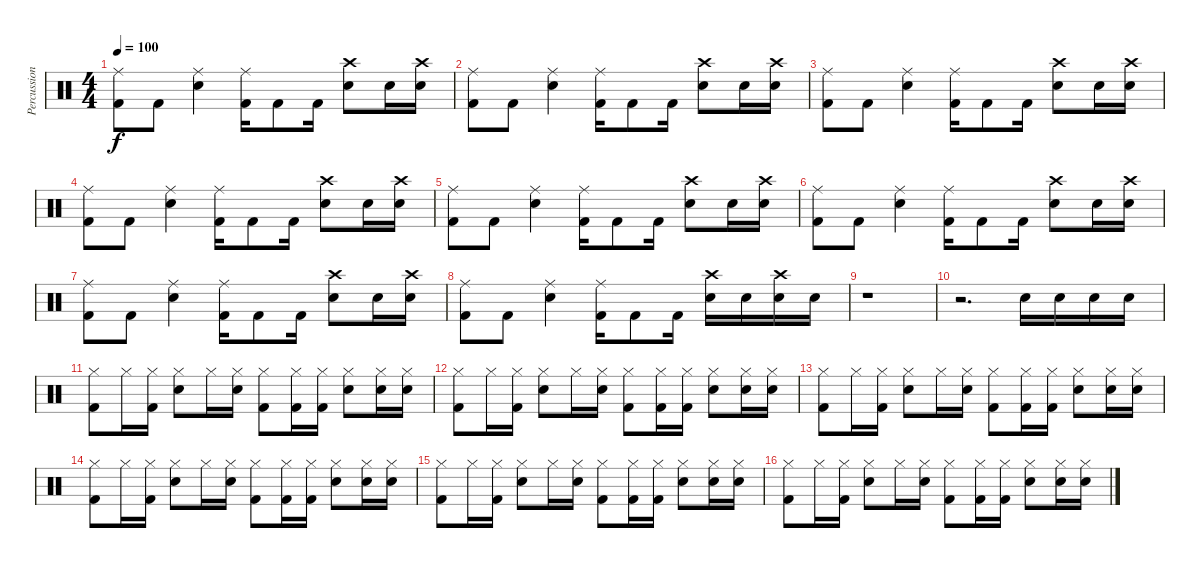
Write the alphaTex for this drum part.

\track ("Percussion - Drums" "Percussion") {instrument percussion}
\staff {score}
\articulation defaults
\ts (4 4)
\tempo 100
\clef neutral
\ks c
("Ride (middle)" "Kick (hit) 2").8{dy f} "Kick (hit) 2".8 ("Ride (middle)" "Snare (hit) 2").4 ("Ride (middle)" "Kick (hit) 2").16 "Kick (hit) 2".8 "Kick (hit) 2".16 ("Crash high (hit)" "Snare (hit) 2").8 "Snare (hit) 2".16 ("Crash high (hit)" "Snare (hit) 2").16 |
("Ride (middle)" "Kick (hit) 2").8 "Kick (hit) 2".8 ("Ride (middle)" "Snare (hit) 2").4 ("Ride (middle)" "Kick (hit) 2").16 "Kick (hit) 2".8 "Kick (hit) 2".16 ("Crash high (hit)" "Snare (hit) 2").8 "Snare (hit) 2".16 ("Crash high (hit)" "Snare (hit) 2").16 |
("Ride (middle)" "Kick (hit) 2").8 "Kick (hit) 2".8 ("Ride (middle)" "Snare (hit) 2").4 ("Ride (middle)" "Kick (hit) 2").16 "Kick (hit) 2".8 "Kick (hit) 2".16 ("Crash high (hit)" "Snare (hit) 2").8 "Snare (hit) 2".16 ("Crash high (hit)" "Snare (hit) 2").16 |
("Ride (middle)" "Kick (hit) 2").8 "Kick (hit) 2".8 ("Ride (middle)" "Snare (hit) 2").4 ("Ride (middle)" "Kick (hit) 2").16 "Kick (hit) 2".8 "Kick (hit) 2".16 ("Crash high (hit)" "Snare (hit) 2").8 "Snare (hit) 2".16 ("Crash high (hit)" "Snare (hit) 2").16 |
("Ride (middle)" "Kick (hit) 2").8 "Kick (hit) 2".8 ("Ride (middle)" "Snare (hit) 2").4 ("Ride (middle)" "Kick (hit) 2").16 "Kick (hit) 2".8 "Kick (hit) 2".16 ("Crash high (hit)" "Snare (hit) 2").8 "Snare (hit) 2".16 ("Crash high (hit)" "Snare (hit) 2").16 |
("Ride (middle)" "Kick (hit) 2").8 "Kick (hit) 2".8 ("Ride (middle)" "Snare (hit) 2").4 ("Ride (middle)" "Kick (hit) 2").16 "Kick (hit) 2".8 "Kick (hit) 2".16 ("Crash high (hit)" "Snare (hit) 2").8 "Snare (hit) 2".16 ("Crash high (hit)" "Snare (hit) 2").16 |
("Ride (middle)" "Kick (hit) 2").8 "Kick (hit) 2".8 ("Ride (middle)" "Snare (hit) 2").4 ("Ride (middle)" "Kick (hit) 2").16 "Kick (hit) 2".8 "Kick (hit) 2".16 ("Crash high (hit)" "Snare (hit) 2").8 "Snare (hit) 2".16 ("Crash high (hit)" "Snare (hit) 2").16 |
("Ride (middle)" "Kick (hit) 2").8 "Kick (hit) 2".8 ("Ride (middle)" "Snare (hit) 2").4 ("Ride (middle)" "Kick (hit) 2").16 "Kick (hit) 2".8 "Kick (hit) 2".16 ("Crash high (hit)" "Snare (hit) 2").16 "Snare (hit) 2".16 ("Crash high (hit)" "Snare (hit) 2").16 "Snare (hit) 2".16 |
r.1 |
r.2{d} "Snare (hit) 2".16 "Snare (hit) 2".16 "Snare (hit) 2".16 "Snare (hit) 2".16 |
("Hi-Hat (closed)" "Kick (hit) 2").8 "Hi-Hat (closed)".16 ("Hi-Hat (closed)" "Kick (hit) 2").16 ("Hi-Hat (closed)" "Snare (hit) 2").8 "Hi-Hat (closed)".16 ("Hi-Hat (closed)" "Snare (hit) 2").16 ("Hi-Hat (closed)" "Kick (hit) 2").8 ("Hi-Hat (closed)" "Kick (hit) 2").16 ("Hi-Hat (closed)" "Kick (hit) 2").16 ("Hi-Hat (closed)" "Snare (hit) 2").8 ("Hi-Hat (closed)" "Snare (hit) 2").16 ("Hi-Hat (closed)" "Snare (hit) 2").16 |
("Hi-Hat (closed)" "Kick (hit) 2").8 "Hi-Hat (closed)".16 ("Hi-Hat (closed)" "Kick (hit) 2").16 ("Hi-Hat (closed)" "Snare (hit) 2").8 "Hi-Hat (closed)".16 ("Hi-Hat (closed)" "Snare (hit) 2").16 ("Hi-Hat (closed)" "Kick (hit) 2").8 ("Hi-Hat (closed)" "Kick (hit) 2").16 ("Hi-Hat (closed)" "Kick (hit) 2").16 ("Hi-Hat (closed)" "Snare (hit) 2").8 ("Hi-Hat (closed)" "Snare (hit) 2").16 ("Hi-Hat (closed)" "Snare (hit) 2").16 |
("Hi-Hat (closed)" "Kick (hit) 2").8 "Hi-Hat (closed)".16 ("Hi-Hat (closed)" "Kick (hit) 2").16 ("Hi-Hat (closed)" "Snare (hit) 2").8 "Hi-Hat (closed)".16 ("Hi-Hat (closed)" "Snare (hit) 2").16 ("Hi-Hat (closed)" "Kick (hit) 2").8 ("Hi-Hat (closed)" "Kick (hit) 2").16 ("Hi-Hat (closed)" "Kick (hit) 2").16 ("Hi-Hat (closed)" "Snare (hit) 2").8 ("Hi-Hat (closed)" "Snare (hit) 2").16 ("Hi-Hat (closed)" "Snare (hit) 2").16 |
("Hi-Hat (closed)" "Kick (hit) 2").8 "Hi-Hat (closed)".16 ("Hi-Hat (closed)" "Kick (hit) 2").16 ("Hi-Hat (closed)" "Snare (hit) 2").8 "Hi-Hat (closed)".16 ("Hi-Hat (closed)" "Snare (hit) 2").16 ("Hi-Hat (closed)" "Kick (hit) 2").8 ("Hi-Hat (closed)" "Kick (hit) 2").16 ("Hi-Hat (closed)" "Kick (hit) 2").16 ("Hi-Hat (closed)" "Snare (hit) 2").8 ("Hi-Hat (closed)" "Snare (hit) 2").16 ("Hi-Hat (closed)" "Snare (hit) 2").16 |
("Hi-Hat (closed)" "Kick (hit) 2").8 "Hi-Hat (closed)".16 ("Hi-Hat (closed)" "Kick (hit) 2").16 ("Hi-Hat (closed)" "Snare (hit) 2").8 "Hi-Hat (closed)".16 ("Hi-Hat (closed)" "Snare (hit) 2").16 ("Hi-Hat (closed)" "Kick (hit) 2").8 ("Hi-Hat (closed)" "Kick (hit) 2").16 ("Hi-Hat (closed)" "Kick (hit) 2").16 ("Hi-Hat (closed)" "Snare (hit) 2").8 ("Hi-Hat (closed)" "Snare (hit) 2").16 ("Hi-Hat (closed)" "Snare (hit) 2").16 |
("Hi-Hat (closed)" "Kick (hit) 2").8 "Hi-Hat (closed)".16 ("Hi-Hat (closed)" "Kick (hit) 2").16 ("Hi-Hat (closed)" "Snare (hit) 2").8 "Hi-Hat (closed)".16 ("Hi-Hat (closed)" "Snare (hit) 2").16 ("Hi-Hat (closed)" "Kick (hit) 2").8 ("Hi-Hat (closed)" "Kick (hit) 2").16 ("Hi-Hat (closed)" "Kick (hit) 2").16 ("Hi-Hat (closed)" "Snare (hit) 2").8 ("Hi-Hat (closed)" "Snare (hit) 2").16 ("Hi-Hat (closed)" "Snare (hit) 2").16
